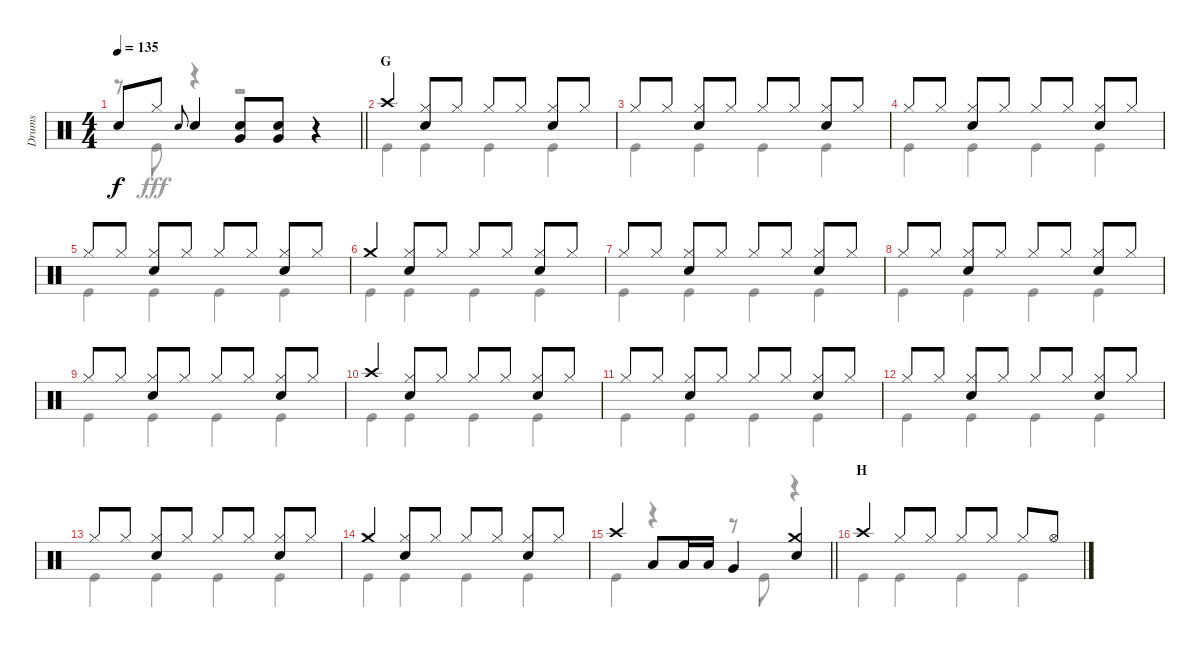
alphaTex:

\track ("Drums" "Drums") {instrument percussion}
\staff {score}
\articulation defaults
\voice
\ts (4 4)
\tempo 135
\clef neutral
\barLineRight lightlight
\ks c "Snare (hit)"{t}.8{dy f} "Hi-Hat (closed)".8 "Snare (hit) 2".8{gr onbeat} "Snare (hit) 2".4
("Snare (hit) 2" "Very Low Tom (hit)").8 ("Snare (hit) 2" "Very Low Tom (hit)").8 r.4 |
\section ("" "G")
"Crash high (hit)".4 ("Hi-Hat (closed)" "Snare (hit) 2").8 "Hi-Hat (closed)".8 "Hi-Hat (closed)".8 "Hi-Hat (closed)".8 ("Hi-Hat (closed)" "Snare (hit) 2").8 "Hi-Hat (closed)".8 |
"Hi-Hat (closed)".8 "Hi-Hat (closed)".8 ("Hi-Hat (closed)" "Snare (hit) 2").8 "Hi-Hat (closed)".8 "Hi-Hat (closed)".8 "Hi-Hat (closed)".8 ("Hi-Hat (closed)" "Snare (hit) 2").8 "Hi-Hat (closed)".8 |
"Hi-Hat (closed)".8 "Hi-Hat (closed)".8 ("Hi-Hat (closed)" "Snare (hit) 2").8 "Hi-Hat (closed)".8 "Hi-Hat (closed)".8 "Hi-Hat (closed)".8 ("Hi-Hat (closed)" "Snare (hit) 2").8 "Hi-Hat (closed)".8 |
"Hi-Hat (closed)".8 "Hi-Hat (closed)".8 ("Hi-Hat (closed)" "Snare (hit) 2").8 "Hi-Hat (closed)".8 "Hi-Hat (closed)".8 "Hi-Hat (closed)".8 ("Hi-Hat (closed)" "Snare (hit) 2").8 "Hi-Hat (closed)".8 |
"Crash medium (hit)".4 ("Hi-Hat (closed)" "Snare (hit) 2").8 "Hi-Hat (closed)".8 "Hi-Hat (closed)".8 "Hi-Hat (closed)".8 ("Hi-Hat (closed)" "Snare (hit) 2").8 "Hi-Hat (closed)".8 |
"Hi-Hat (closed)".8 "Hi-Hat (closed)".8 ("Hi-Hat (closed)" "Snare (hit) 2").8 "Hi-Hat (closed)".8 "Hi-Hat (closed)".8 "Hi-Hat (closed)".8 ("Hi-Hat (closed)" "Snare (hit) 2").8 "Hi-Hat (closed)".8 |
"Hi-Hat (closed)".8 "Hi-Hat (closed)".8 ("Hi-Hat (closed)" "Snare (hit) 2").8 "Hi-Hat (closed)".8 "Hi-Hat (closed)".8 "Hi-Hat (closed)".8 ("Hi-Hat (closed)" "Snare (hit) 2").8 "Hi-Hat (closed)".8 |
"Hi-Hat (closed)".8 "Hi-Hat (closed)".8 ("Hi-Hat (closed)" "Snare (hit) 2").8 "Hi-Hat (closed)".8 "Hi-Hat (closed)".8 "Hi-Hat (closed)".8 ("Hi-Hat (closed)" "Snare (hit) 2").8 "Hi-Hat (closed)".8 |
"Crash high (hit)".4 ("Hi-Hat (closed)" "Snare (hit) 2").8 "Hi-Hat (closed)".8 "Hi-Hat (closed)".8 "Hi-Hat (closed)".8 ("Hi-Hat (closed)" "Snare (hit) 2").8 "Hi-Hat (closed)".8 |
"Hi-Hat (closed)".8 "Hi-Hat (closed)".8 ("Hi-Hat (closed)" "Snare (hit) 2").8 "Hi-Hat (closed)".8 "Hi-Hat (closed)".8 "Hi-Hat (closed)".8 ("Hi-Hat (closed)" "Snare (hit) 2").8 "Hi-Hat (closed)".8 |
"Hi-Hat (closed)".8 "Hi-Hat (closed)".8 ("Hi-Hat (closed)" "Snare (hit) 2").8 "Hi-Hat (closed)".8 "Hi-Hat (closed)".8 "Hi-Hat (closed)".8 ("Hi-Hat (closed)" "Snare (hit) 2").8 "Hi-Hat (closed)".8 |
"Hi-Hat (closed)".8 "Hi-Hat (closed)".8 ("Hi-Hat (closed)" "Snare (hit) 2").8 "Hi-Hat (closed)".8 "Hi-Hat (closed)".8 "Hi-Hat (closed)".8 ("Hi-Hat (closed)" "Snare (hit) 2").8 "Hi-Hat (closed)".8 |
"Crash medium (hit)".4 ("Hi-Hat (closed)" "Snare (hit) 2").8 "Hi-Hat (closed)".8 "Hi-Hat (closed)".8 "Hi-Hat (closed)".8 ("Hi-Hat (closed)" "Snare (hit) 2").8 "Hi-Hat (closed)".8 |
\barLineRight lightlight "Crash high (hit)".4 "Low Tom (hit)".8 "Low Tom (hit)".16 "Low Tom (hit)".16 "Very Low Tom (hit)".4
("Crash medium (hit)" "Snare (hit) 2").4 |
\section ("" "H")
"Crash high (hit)".4 "Hi-Hat (closed)".8 "Hi-Hat (closed)".8 "Hi-Hat (closed)".8 "Hi-Hat (closed)".8 "Hi-Hat (closed)".8 "Hi-Hat (open)".8
\voice
\clef neutral
\ottava regular
\simile none
\barLineRight lightlight
\ks c
r.8{dy fff} "Kick (hit)".8 r.4 r.2 |
"Kick (hit)".4 "Kick (hit)".4 "Kick (hit)".4 "Kick (hit)".4 |
"Kick (hit)".4 "Kick (hit)".4 "Kick (hit)".4 "Kick (hit)".4 |
"Kick (hit)".4 "Kick (hit)".4 "Kick (hit)".4 "Kick (hit)".4 |
"Kick (hit)".4 "Kick (hit)".4 "Kick (hit)".4 "Kick (hit)".4 |
"Kick (hit)".4 "Kick (hit)".4 "Kick (hit)".4 "Kick (hit)".4 |
"Kick (hit)".4 "Kick (hit)".4 "Kick (hit)".4 "Kick (hit)".4 |
"Kick (hit)".4 "Kick (hit)".4 "Kick (hit)".4 "Kick (hit)".4 |
"Kick (hit)".4 "Kick (hit)".4 "Kick (hit)".4 "Kick (hit)".4 |
"Kick (hit)".4 "Kick (hit)".4 "Kick (hit)".4 "Kick (hit)".4 |
"Kick (hit)".4 "Kick (hit)".4 "Kick (hit)".4 "Kick (hit)".4 |
"Kick (hit)".4 "Kick (hit)".4 "Kick (hit)".4 "Kick (hit)".4 |
"Kick (hit)".4 "Kick (hit)".4 "Kick (hit)".4 "Kick (hit)".4 |
"Kick (hit)".4 "Kick (hit)".4 "Kick (hit)".4 "Kick (hit)".4 |
\barLineRight lightlight "Kick (hit)".4
r.4 r.8 "Kick (hit)".8 r.4 |
"Kick (hit)".4 "Kick (hit)".4 "Kick (hit)".4 "Kick (hit)".4
